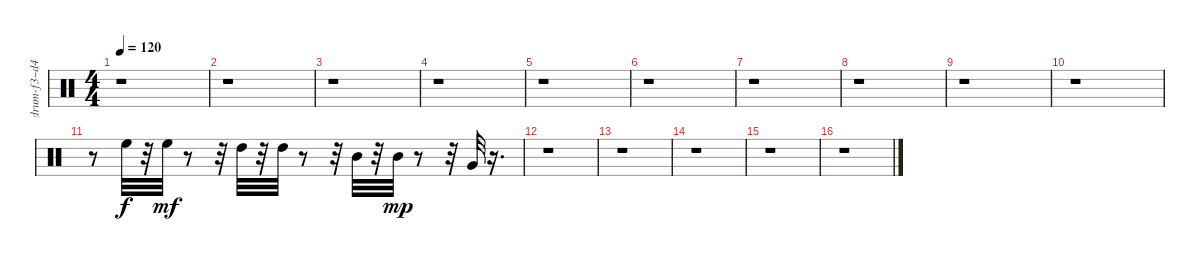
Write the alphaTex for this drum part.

\track ("drum-f3~d4" "drum-f3~d4") {instrument percussion}
\staff {score}
\articulation defaults
\ts (4 4)
\tempo 120
\clef neutral
\ks c
r.1{dy p} |
r.1 |
r.1 |
r.1 |
r.1 |
r.1 |
r.1 |
r.1 |
r.1 |
r.1 |
r.8 "High Floor Tom (hit)".32{dy f} r.32 "High Floor Tom (hit)".32{dy mf} r.8 r.32 "High Tom (hit)".32 r.32 "High Tom (hit)".32 r.8 r.32 "Mid Tom (hit)".32 r.32 "Mid Tom (hit)".32{dy mp} r.8 r.32 "Very Low Tom (hit)".32 r.16{d} |
r.1 |
r.1 |
r.1 |
r.1 |
r.1
